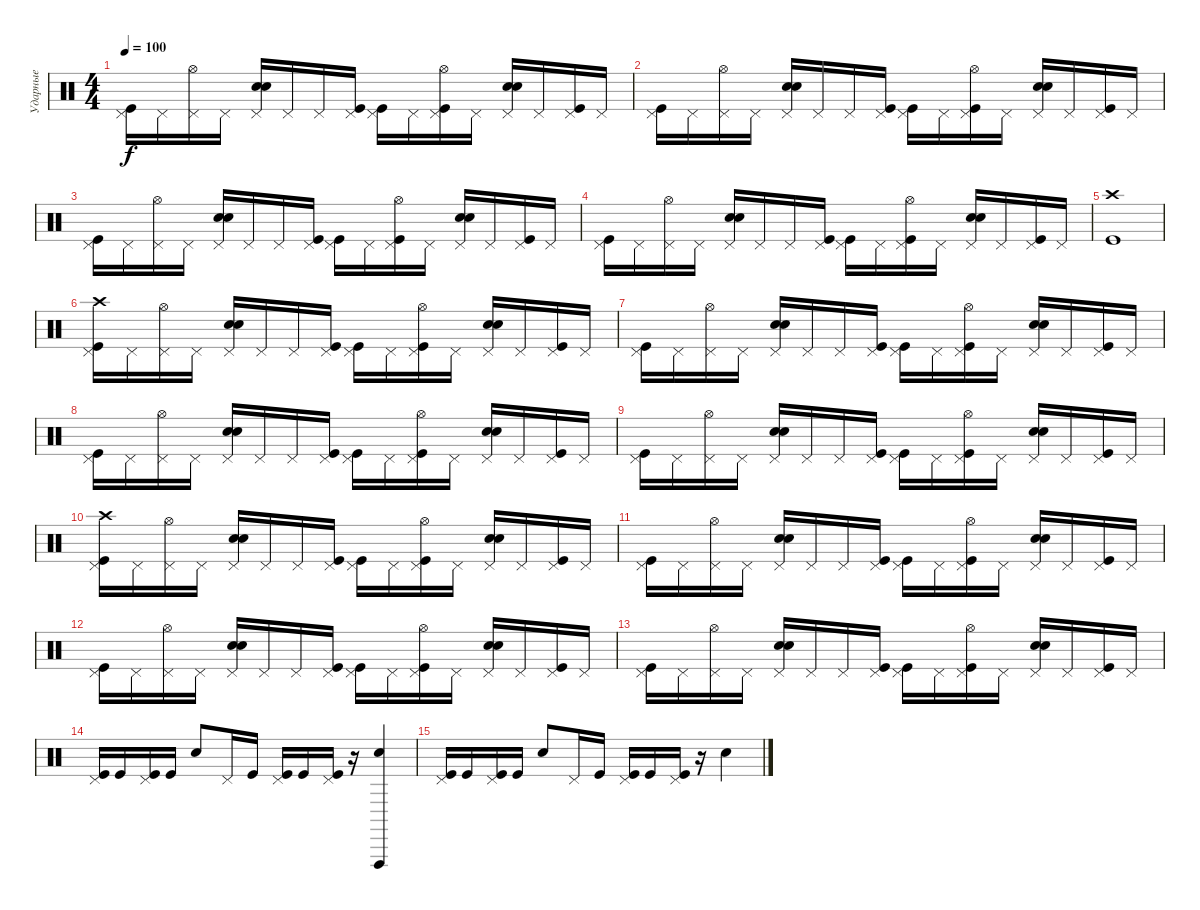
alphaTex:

\track ("Ударные" "Ударные") {instrument percussion}
\staff {score}
\articulation defaults
\ts (4 4)
\tempo 100
\clef neutral
\ks c
("Kick (hit)" "Pedal Hi-Hat (hit)").16{dy f} "Pedal Hi-Hat (hit)".16 ("Pedal Hi-Hat (hit)" "Hi-Hat (open)").16 "Pedal Hi-Hat (hit)".16 ("Pedal Hi-Hat (hit)" "Electric Snare (hit)" "Hand Clap (hit)").16 "Pedal Hi-Hat (hit)".16 "Pedal Hi-Hat (hit)".16 ("Kick (hit)" "Pedal Hi-Hat (hit)").16 ("Kick (hit)" "Pedal Hi-Hat (hit)").16 "Pedal Hi-Hat (hit)".16 ("Kick (hit)" "Pedal Hi-Hat (hit)" "Hi-Hat (open)").16 "Pedal Hi-Hat (hit)".16 ("Pedal Hi-Hat (hit)" "Electric Snare (hit)" "Hand Clap (hit)").16 "Pedal Hi-Hat (hit)".16 ("Kick (hit)" "Pedal Hi-Hat (hit)").16 "Pedal Hi-Hat (hit)".16 |
("Kick (hit)" "Pedal Hi-Hat (hit)").16 "Pedal Hi-Hat (hit)".16 ("Pedal Hi-Hat (hit)" "Hi-Hat (open)").16 "Pedal Hi-Hat (hit)".16 ("Pedal Hi-Hat (hit)" "Electric Snare (hit)" "Hand Clap (hit)").16 "Pedal Hi-Hat (hit)".16 "Pedal Hi-Hat (hit)".16 ("Kick (hit)" "Pedal Hi-Hat (hit)").16 ("Kick (hit)" "Pedal Hi-Hat (hit)").16 "Pedal Hi-Hat (hit)".16 ("Kick (hit)" "Pedal Hi-Hat (hit)" "Hi-Hat (open)").16 "Pedal Hi-Hat (hit)".16 ("Pedal Hi-Hat (hit)" "Electric Snare (hit)" "Hand Clap (hit)").16 "Pedal Hi-Hat (hit)".16 ("Kick (hit)" "Pedal Hi-Hat (hit)").16 "Pedal Hi-Hat (hit)".16 |
("Kick (hit)" "Pedal Hi-Hat (hit)").16 "Pedal Hi-Hat (hit)".16 ("Pedal Hi-Hat (hit)" "Hi-Hat (open)").16 "Pedal Hi-Hat (hit)".16 ("Pedal Hi-Hat (hit)" "Electric Snare (hit)" "Hand Clap (hit)").16 "Pedal Hi-Hat (hit)".16 "Pedal Hi-Hat (hit)".16 ("Kick (hit)" "Pedal Hi-Hat (hit)").16 ("Kick (hit)" "Pedal Hi-Hat (hit)").16 "Pedal Hi-Hat (hit)".16 ("Kick (hit)" "Pedal Hi-Hat (hit)" "Hi-Hat (open)").16 "Pedal Hi-Hat (hit)".16 ("Pedal Hi-Hat (hit)" "Electric Snare (hit)" "Hand Clap (hit)").16 "Pedal Hi-Hat (hit)".16 ("Kick (hit)" "Pedal Hi-Hat (hit)").16 "Pedal Hi-Hat (hit)".16 |
("Kick (hit)" "Pedal Hi-Hat (hit)").16 "Pedal Hi-Hat (hit)".16 ("Pedal Hi-Hat (hit)" "Hi-Hat (open)").16 "Pedal Hi-Hat (hit)".16 ("Pedal Hi-Hat (hit)" "Electric Snare (hit)" "Hand Clap (hit)").16 "Pedal Hi-Hat (hit)".16 "Pedal Hi-Hat (hit)".16 ("Kick (hit)" "Pedal Hi-Hat (hit)").16 ("Kick (hit)" "Pedal Hi-Hat (hit)").16 "Pedal Hi-Hat (hit)".16 ("Kick (hit)" "Pedal Hi-Hat (hit)" "Hi-Hat (open)").16 "Pedal Hi-Hat (hit)".16 ("Pedal Hi-Hat (hit)" "Electric Snare (hit)" "Hand Clap (hit)").16 "Pedal Hi-Hat (hit)".16 ("Kick (hit)" "Pedal Hi-Hat (hit)").16 "Pedal Hi-Hat (hit)".16 |
("Kick (hit)" "Crash high (hit)").1 |
("Kick (hit)" "Pedal Hi-Hat (hit)" "Crash high (hit)").16 "Pedal Hi-Hat (hit)".16 ("Pedal Hi-Hat (hit)" "Hi-Hat (open)").16 "Pedal Hi-Hat (hit)".16 ("Pedal Hi-Hat (hit)" "Electric Snare (hit)" "Hand Clap (hit)").16 "Pedal Hi-Hat (hit)".16 "Pedal Hi-Hat (hit)".16 ("Kick (hit)" "Pedal Hi-Hat (hit)").16 ("Kick (hit)" "Pedal Hi-Hat (hit)").16 "Pedal Hi-Hat (hit)".16 ("Kick (hit)" "Pedal Hi-Hat (hit)" "Hi-Hat (open)").16 "Pedal Hi-Hat (hit)".16 ("Pedal Hi-Hat (hit)" "Electric Snare (hit)" "Hand Clap (hit)").16 "Pedal Hi-Hat (hit)".16 ("Kick (hit)" "Pedal Hi-Hat (hit)").16 "Pedal Hi-Hat (hit)".16 |
("Kick (hit)" "Pedal Hi-Hat (hit)").16 "Pedal Hi-Hat (hit)".16 ("Pedal Hi-Hat (hit)" "Hi-Hat (open)").16 "Pedal Hi-Hat (hit)".16 ("Pedal Hi-Hat (hit)" "Electric Snare (hit)" "Hand Clap (hit)").16 "Pedal Hi-Hat (hit)".16 "Pedal Hi-Hat (hit)".16 ("Kick (hit)" "Pedal Hi-Hat (hit)").16 ("Kick (hit)" "Pedal Hi-Hat (hit)").16 "Pedal Hi-Hat (hit)".16 ("Kick (hit)" "Pedal Hi-Hat (hit)" "Hi-Hat (open)").16 "Pedal Hi-Hat (hit)".16 ("Pedal Hi-Hat (hit)" "Electric Snare (hit)" "Hand Clap (hit)").16 "Pedal Hi-Hat (hit)".16 ("Kick (hit)" "Pedal Hi-Hat (hit)").16 "Pedal Hi-Hat (hit)".16 |
("Kick (hit)" "Pedal Hi-Hat (hit)").16 "Pedal Hi-Hat (hit)".16 ("Pedal Hi-Hat (hit)" "Hi-Hat (open)").16 "Pedal Hi-Hat (hit)".16 ("Pedal Hi-Hat (hit)" "Electric Snare (hit)" "Hand Clap (hit)").16 "Pedal Hi-Hat (hit)".16 "Pedal Hi-Hat (hit)".16 ("Kick (hit)" "Pedal Hi-Hat (hit)").16 ("Kick (hit)" "Pedal Hi-Hat (hit)").16 "Pedal Hi-Hat (hit)".16 ("Kick (hit)" "Pedal Hi-Hat (hit)" "Hi-Hat (open)").16 "Pedal Hi-Hat (hit)".16 ("Pedal Hi-Hat (hit)" "Electric Snare (hit)" "Hand Clap (hit)").16 "Pedal Hi-Hat (hit)".16 ("Kick (hit)" "Pedal Hi-Hat (hit)").16 "Pedal Hi-Hat (hit)".16 |
("Kick (hit)" "Pedal Hi-Hat (hit)").16 "Pedal Hi-Hat (hit)".16 ("Pedal Hi-Hat (hit)" "Hi-Hat (open)").16 "Pedal Hi-Hat (hit)".16 ("Pedal Hi-Hat (hit)" "Electric Snare (hit)" "Hand Clap (hit)").16 "Pedal Hi-Hat (hit)".16 "Pedal Hi-Hat (hit)".16 ("Kick (hit)" "Pedal Hi-Hat (hit)").16 ("Kick (hit)" "Pedal Hi-Hat (hit)").16 "Pedal Hi-Hat (hit)".16 ("Kick (hit)" "Pedal Hi-Hat (hit)" "Hi-Hat (open)").16 "Pedal Hi-Hat (hit)".16 ("Pedal Hi-Hat (hit)" "Electric Snare (hit)" "Hand Clap (hit)").16 "Pedal Hi-Hat (hit)".16 ("Kick (hit)" "Pedal Hi-Hat (hit)").16 "Pedal Hi-Hat (hit)".16 |
("Kick (hit)" "Pedal Hi-Hat (hit)" "Crash high (hit)").16 "Pedal Hi-Hat (hit)".16 ("Pedal Hi-Hat (hit)" "Hi-Hat (open)").16 "Pedal Hi-Hat (hit)".16 ("Pedal Hi-Hat (hit)" "Electric Snare (hit)" "Hand Clap (hit)").16 "Pedal Hi-Hat (hit)".16 "Pedal Hi-Hat (hit)".16 ("Kick (hit)" "Pedal Hi-Hat (hit)").16 ("Kick (hit)" "Pedal Hi-Hat (hit)").16 "Pedal Hi-Hat (hit)".16 ("Kick (hit)" "Pedal Hi-Hat (hit)" "Hi-Hat (open)").16 "Pedal Hi-Hat (hit)".16 ("Pedal Hi-Hat (hit)" "Electric Snare (hit)" "Hand Clap (hit)").16 "Pedal Hi-Hat (hit)".16 ("Kick (hit)" "Pedal Hi-Hat (hit)").16 "Pedal Hi-Hat (hit)".16 |
("Kick (hit)" "Pedal Hi-Hat (hit)").16 "Pedal Hi-Hat (hit)".16 ("Pedal Hi-Hat (hit)" "Hi-Hat (open)").16 "Pedal Hi-Hat (hit)".16 ("Pedal Hi-Hat (hit)" "Electric Snare (hit)" "Hand Clap (hit)").16 "Pedal Hi-Hat (hit)".16 "Pedal Hi-Hat (hit)".16 ("Kick (hit)" "Pedal Hi-Hat (hit)").16 ("Kick (hit)" "Pedal Hi-Hat (hit)").16 "Pedal Hi-Hat (hit)".16 ("Kick (hit)" "Pedal Hi-Hat (hit)" "Hi-Hat (open)").16 "Pedal Hi-Hat (hit)".16 ("Pedal Hi-Hat (hit)" "Electric Snare (hit)" "Hand Clap (hit)").16 "Pedal Hi-Hat (hit)".16 ("Kick (hit)" "Pedal Hi-Hat (hit)").16 "Pedal Hi-Hat (hit)".16 |
("Kick (hit)" "Pedal Hi-Hat (hit)").16 "Pedal Hi-Hat (hit)".16 ("Pedal Hi-Hat (hit)" "Hi-Hat (open)").16 "Pedal Hi-Hat (hit)".16 ("Pedal Hi-Hat (hit)" "Electric Snare (hit)" "Hand Clap (hit)").16 "Pedal Hi-Hat (hit)".16 "Pedal Hi-Hat (hit)".16 ("Kick (hit)" "Pedal Hi-Hat (hit)").16 ("Kick (hit)" "Pedal Hi-Hat (hit)").16 "Pedal Hi-Hat (hit)".16 ("Kick (hit)" "Pedal Hi-Hat (hit)" "Hi-Hat (open)").16 "Pedal Hi-Hat (hit)".16 ("Pedal Hi-Hat (hit)" "Electric Snare (hit)" "Hand Clap (hit)").16 "Pedal Hi-Hat (hit)".16 ("Kick (hit)" "Pedal Hi-Hat (hit)").16 "Pedal Hi-Hat (hit)".16 |
("Kick (hit)" "Pedal Hi-Hat (hit)").16 "Pedal Hi-Hat (hit)".16 ("Pedal Hi-Hat (hit)" "Hi-Hat (open)").16 "Pedal Hi-Hat (hit)".16 ("Pedal Hi-Hat (hit)" "Electric Snare (hit)" "Hand Clap (hit)").16 "Pedal Hi-Hat (hit)".16 "Pedal Hi-Hat (hit)".16 ("Kick (hit)" "Pedal Hi-Hat (hit)").16 ("Kick (hit)" "Pedal Hi-Hat (hit)").16 "Pedal Hi-Hat (hit)".16 ("Kick (hit)" "Pedal Hi-Hat (hit)" "Hi-Hat (open)").16 "Pedal Hi-Hat (hit)".16 ("Pedal Hi-Hat (hit)" "Electric Snare (hit)" "Hand Clap (hit)").16 "Pedal Hi-Hat (hit)".16 ("Kick (hit)" "Pedal Hi-Hat (hit)").16 "Pedal Hi-Hat (hit)".16 |
("Kick (hit)" "Pedal Hi-Hat (hit)").16 "Kick (hit)".16 ("Kick (hit)" "Pedal Hi-Hat (hit)").16 "Kick (hit)".16 "Electric Snare (hit)".8 "Pedal Hi-Hat (hit)".16 "Kick (hit)".16 ("Kick (hit)" "Pedal Hi-Hat (hit)").16 "Kick (hit)".16 ("Kick (hit)" "Pedal Hi-Hat (hit)").16 r.16 ("Electric Snare (hit)" "Vibraslap (hit)").4 |
("Kick (hit)" "Pedal Hi-Hat (hit)").16 "Kick (hit)".16 ("Kick (hit)" "Pedal Hi-Hat (hit)").16 "Kick (hit)".16 "Electric Snare (hit)".8 "Pedal Hi-Hat (hit)".16 "Kick (hit)".16 ("Kick (hit)" "Pedal Hi-Hat (hit)").16 "Kick (hit)".16 ("Kick (hit)" "Pedal Hi-Hat (hit)").16 r.16 "Electric Snare (hit)".4
